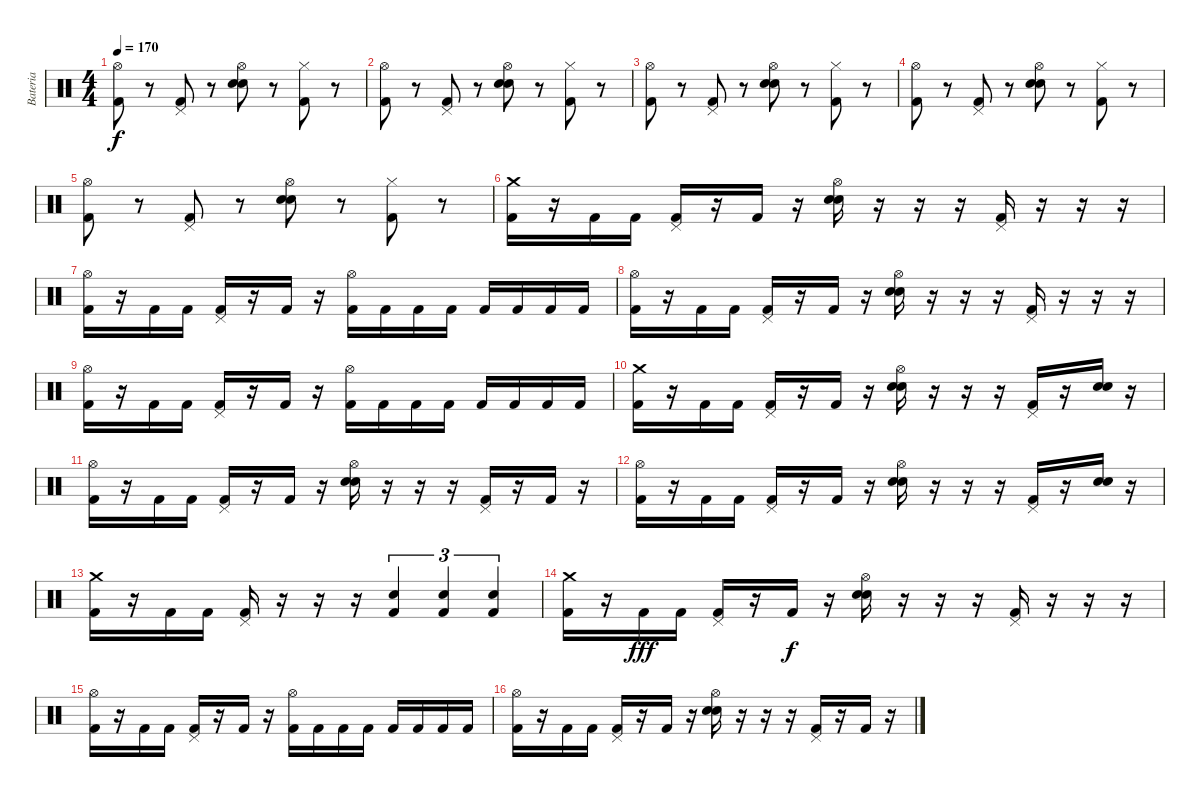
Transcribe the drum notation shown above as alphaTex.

\track ("Bateria" "Bateria") {instrument percussion}
\staff {score}
\articulation defaults
\ts (4 4)
\tempo 170
\clef neutral
\ks c
("Hi-Hat (open)" "Kick (hit) 2").8{dy f} r.8 ("Pedal Hi-Hat (hit)" "Kick (hit) 2").8 r.8 ("Hi-Hat (open)" "Electric Snare (hit)" "Snare (hit) 2").8 r.8 ("Hi-Hat (closed)" "Kick (hit) 2").8 r.8 |
("Hi-Hat (open)" "Kick (hit) 2").8 r.8 ("Pedal Hi-Hat (hit)" "Kick (hit) 2").8 r.8 ("Hi-Hat (open)" "Electric Snare (hit)" "Snare (hit) 2").8 r.8 ("Hi-Hat (closed)" "Kick (hit) 2").8 r.8 |
("Hi-Hat (open)" "Kick (hit) 2").8 r.8 ("Pedal Hi-Hat (hit)" "Kick (hit) 2").8 r.8 ("Hi-Hat (open)" "Electric Snare (hit)" "Snare (hit) 2").8 r.8 ("Hi-Hat (closed)" "Kick (hit) 2").8 r.8 |
("Hi-Hat (open)" "Kick (hit) 2").8 r.8 ("Pedal Hi-Hat (hit)" "Kick (hit) 2").8 r.8 ("Hi-Hat (open)" "Electric Snare (hit)" "Snare (hit) 2").8 r.8 ("Hi-Hat (closed)" "Kick (hit) 2").8 r.8 |
("Hi-Hat (open)" "Kick (hit) 2").8 r.8 ("Pedal Hi-Hat (hit)" "Kick (hit) 2").8 r.8 ("Hi-Hat (open)" "Electric Snare (hit)" "Snare (hit) 2").8 r.8 ("Hi-Hat (closed)" "Kick (hit) 2").8 r.8 |
("Crash medium (hit)" "Kick (hit) 2").16 r.16 "Kick (hit) 2".16 "Kick (hit) 2".16 ("Pedal Hi-Hat (hit)" "Kick (hit) 2").16 r.16 "Kick (hit) 2".16 r.16 ("Hi-Hat (open)" "Electric Snare (hit)" "Snare (hit) 2").16 r.16 r.16 r.16 ("Pedal Hi-Hat (hit)" "Kick (hit) 2").16 r.16 r.16 r.16 |
("Hi-Hat (open)" "Kick (hit) 2").16 r.16 "Kick (hit) 2".16 "Kick (hit) 2".16 ("Pedal Hi-Hat (hit)" "Kick (hit) 2").16 r.16 "Kick (hit) 2".16 r.16 ("Hi-Hat (open)" "Kick (hit) 2").16 "Kick (hit) 2".16 "Kick (hit) 2".16 "Kick (hit) 2".16 "Kick (hit) 2".16 "Kick (hit) 2".16 "Kick (hit) 2".16 "Kick (hit) 2".16 |
("Hi-Hat (open)" "Kick (hit) 2").16 r.16 "Kick (hit) 2".16 "Kick (hit) 2".16 ("Pedal Hi-Hat (hit)" "Kick (hit) 2").16 r.16 "Kick (hit) 2".16 r.16 ("Hi-Hat (open)" "Electric Snare (hit)" "Snare (hit) 2").16 r.16 r.16 r.16 ("Pedal Hi-Hat (hit)" "Kick (hit) 2").16 r.16 r.16 r.16 |
("Hi-Hat (open)" "Kick (hit) 2").16 r.16 "Kick (hit) 2".16 "Kick (hit) 2".16 ("Pedal Hi-Hat (hit)" "Kick (hit) 2").16 r.16 "Kick (hit) 2".16 r.16 ("Hi-Hat (open)" "Kick (hit) 2").16 "Kick (hit) 2".16 "Kick (hit) 2".16 "Kick (hit) 2".16 "Kick (hit) 2".16 "Kick (hit) 2".16 "Kick (hit) 2".16 "Kick (hit) 2".16 |
("Crash medium (hit)" "Kick (hit) 2").16 r.16 "Kick (hit) 2".16 "Kick (hit) 2".16 ("Pedal Hi-Hat (hit)" "Kick (hit) 2").16 r.16 "Kick (hit) 2".16 r.16 ("Hi-Hat (open)" "Electric Snare (hit)" "Snare (hit) 2").16 r.16 r.16 r.16 ("Pedal Hi-Hat (hit)" "Kick (hit) 2").16 r.16 ("Electric Snare (hit)" "Snare (hit) 2").16 r.16 |
("Hi-Hat (open)" "Kick (hit) 2").16 r.16 "Kick (hit) 2".16 "Kick (hit) 2".16 ("Pedal Hi-Hat (hit)" "Kick (hit) 2").16 r.16 "Kick (hit) 2".16 r.16 ("Hi-Hat (open)" "Electric Snare (hit)" "Snare (hit) 2").16 r.16 r.16 r.16 ("Pedal Hi-Hat (hit)" "Kick (hit) 2").16 r.16 "Kick (hit) 2".16 r.16 |
("Hi-Hat (open)" "Kick (hit) 2").16 r.16 "Kick (hit) 2".16 "Kick (hit) 2".16 ("Pedal Hi-Hat (hit)" "Kick (hit) 2").16 r.16 "Kick (hit) 2".16 r.16 ("Hi-Hat (open)" "Electric Snare (hit)" "Snare (hit) 2").16 r.16 r.16 r.16 ("Pedal Hi-Hat (hit)" "Kick (hit) 2").16 r.16 ("Electric Snare (hit)" "Snare (hit) 2").16 r.16 |
("Crash medium (hit)" "Kick (hit) 2").16 r.16 "Kick (hit) 2".16 "Kick (hit) 2".16 ("Pedal Hi-Hat (hit)" "Kick (hit) 2").16 r.16 r.16 r.16 ("Electric Snare (hit)" "Kick (hit) 2").4{tu (3 2)} ("Electric Snare (hit)" "Kick (hit) 2").4{tu (3 2)} ("Electric Snare (hit)" "Kick (hit) 2").4{tu (3 2)} |
("Crash medium (hit)" "Kick (hit) 2").16 r.16 "Kick (hit) 2".16{dy fff} "Kick (hit) 2".16 ("Pedal Hi-Hat (hit)" "Kick (hit) 2").16 r.16 "Kick (hit) 2".16{dy f} r.16 ("Hi-Hat (open)" "Electric Snare (hit)" "Snare (hit) 2").16 r.16 r.16 r.16 ("Pedal Hi-Hat (hit)" "Kick (hit) 2").16 r.16 r.16 r.16 |
("Hi-Hat (open)" "Kick (hit) 2").16 r.16 "Kick (hit) 2".16 "Kick (hit) 2".16 ("Pedal Hi-Hat (hit)" "Kick (hit) 2").16 r.16 "Kick (hit) 2".16 r.16 ("Hi-Hat (open)" "Kick (hit) 2").16 "Kick (hit) 2".16 "Kick (hit) 2".16 "Kick (hit) 2".16 "Kick (hit) 2".16 "Kick (hit) 2".16 "Kick (hit) 2".16 "Kick (hit) 2".16 |
("Hi-Hat (open)" "Kick (hit) 2").16 r.16 "Kick (hit) 2".16 "Kick (hit) 2".16 ("Pedal Hi-Hat (hit)" "Kick (hit) 2").16 r.16 "Kick (hit) 2".16 r.16 ("Hi-Hat (open)" "Electric Snare (hit)" "Snare (hit) 2").16 r.16 r.16 r.16 ("Pedal Hi-Hat (hit)" "Kick (hit) 2").16 r.16 "Kick (hit) 2".16 r.16
